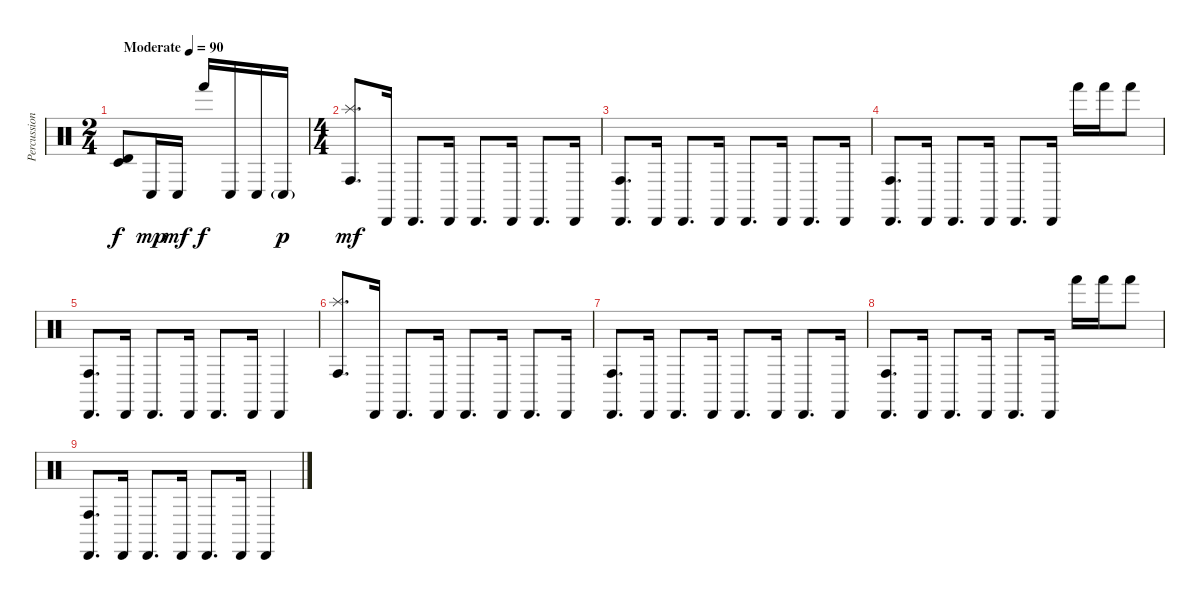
\track ("Percussion" "Percussion") {instrument percussion}
\staff {score}
\articulation defaults
\ts (2 4)
\tempo (90 "Moderate")
\clef neutral
\ks c
("Timbale low (hit)" "Timbale high (hit)").8{dy f} "Conga low (hit)".16{dy mp} "Conga low (hit)".16{dy mf} "Hand (hit)".16{dy f} "Conga low (hit)".16 "Conga low (hit)".16 "Conga low (hit)"{g}.16{dy p} |
\ts (4 4)
("Splash (hit)" "Conga high (hit)").8{d dy mf} "Cabasa (hit)".16 "Cabasa (hit)".8{d} "Cabasa (hit)".16 "Cabasa (hit)".8{d} "Cabasa (hit)".16 "Cabasa (hit)".8{d} "Cabasa (hit)".16 |
("Cabasa (hit)" "Conga high (hit)").8{d} "Cabasa (hit)".16 "Cabasa (hit)".8{d} "Cabasa (hit)".16 "Cabasa (hit)".8{d} "Cabasa (hit)".16 "Cabasa (hit)".8{d} "Cabasa (hit)".16 |
("Cabasa (hit)" "Conga high (hit)").8{d} "Cabasa (hit)".16 "Cabasa (hit)".8{d} "Cabasa (hit)".16 "Cabasa (hit)".8{d} "Cabasa (hit)".16 "Hand (hit)".16 "Hand (hit)".16 "Hand (hit)".8 |
("Cabasa (hit)" "Conga high (hit)").8{d} "Cabasa (hit)".16 "Cabasa (hit)".8{d} "Cabasa (hit)".16 "Cabasa (hit)".8{d} "Cabasa (hit)".16 "Cabasa (hit)".4 |
("Splash (hit)" "Conga high (hit)").8{d} "Cabasa (hit)".16 "Cabasa (hit)".8{d} "Cabasa (hit)".16 "Cabasa (hit)".8{d} "Cabasa (hit)".16 "Cabasa (hit)".8{d} "Cabasa (hit)".16 |
("Cabasa (hit)" "Conga high (hit)").8{d} "Cabasa (hit)".16 "Cabasa (hit)".8{d} "Cabasa (hit)".16 "Cabasa (hit)".8{d} "Cabasa (hit)".16 "Cabasa (hit)".8{d} "Cabasa (hit)".16 |
("Cabasa (hit)" "Conga high (hit)").8{d} "Cabasa (hit)".16 "Cabasa (hit)".8{d} "Cabasa (hit)".16 "Cabasa (hit)".8{d} "Cabasa (hit)".16 "Hand (hit)".16 "Hand (hit)".16 "Hand (hit)".8 |
("Cabasa (hit)" "Conga high (hit)").8{d} "Cabasa (hit)".16 "Cabasa (hit)".8{d} "Cabasa (hit)".16 "Cabasa (hit)".8{d} "Cabasa (hit)".16 "Cabasa (hit)".4
